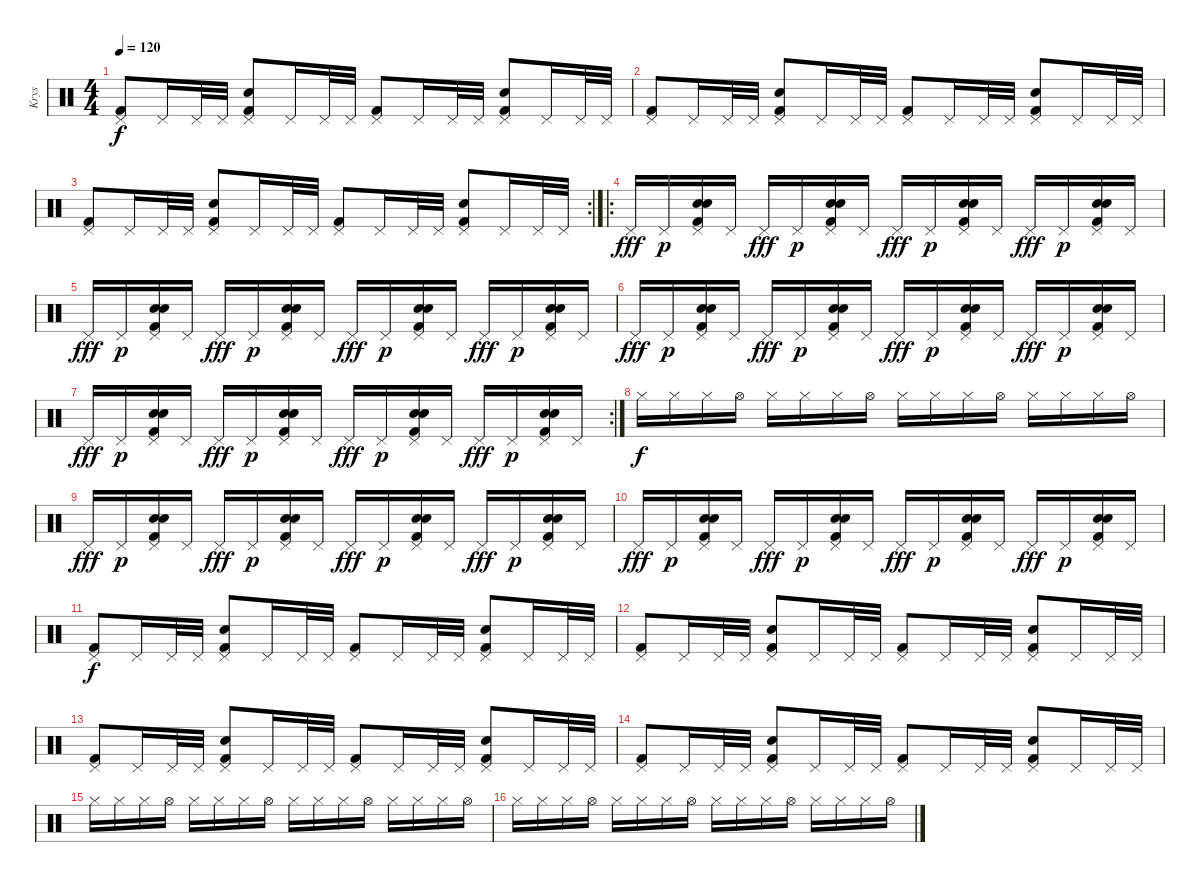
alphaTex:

\track ("Krys" "Krys") {instrument percussion}
\staff {score}
\articulation defaults
\ts (4 4)
\tempo 120
\clef neutral
\ks c
("Pedal Hi-Hat (hit)" "Kick (hit) 2").8{dy f} "Pedal Hi-Hat (hit)".16 "Pedal Hi-Hat (hit)".32 "Pedal Hi-Hat (hit)".32 ("Pedal Hi-Hat (hit)" "Snare (hit) 2" "Kick (hit) 2").8 "Pedal Hi-Hat (hit)".16 "Pedal Hi-Hat (hit)".32 "Pedal Hi-Hat (hit)".32 ("Pedal Hi-Hat (hit)" "Kick (hit) 2").8 "Pedal Hi-Hat (hit)".16 "Pedal Hi-Hat (hit)".32 "Pedal Hi-Hat (hit)".32 ("Pedal Hi-Hat (hit)" "Snare (hit) 2" "Kick (hit) 2").8 "Pedal Hi-Hat (hit)".16 "Pedal Hi-Hat (hit)".32 "Pedal Hi-Hat (hit)".32 |
("Pedal Hi-Hat (hit)" "Kick (hit) 2").8 "Pedal Hi-Hat (hit)".16 "Pedal Hi-Hat (hit)".32 "Pedal Hi-Hat (hit)".32 ("Pedal Hi-Hat (hit)" "Snare (hit) 2" "Kick (hit) 2").8 "Pedal Hi-Hat (hit)".16 "Pedal Hi-Hat (hit)".32 "Pedal Hi-Hat (hit)".32 ("Pedal Hi-Hat (hit)" "Kick (hit) 2").8 "Pedal Hi-Hat (hit)".16 "Pedal Hi-Hat (hit)".32 "Pedal Hi-Hat (hit)".32 ("Pedal Hi-Hat (hit)" "Snare (hit) 2" "Kick (hit) 2").8 "Pedal Hi-Hat (hit)".16 "Pedal Hi-Hat (hit)".32 "Pedal Hi-Hat (hit)".32 |
\rc 2
("Pedal Hi-Hat (hit)" "Kick (hit) 2").8 "Pedal Hi-Hat (hit)".16 "Pedal Hi-Hat (hit)".32 "Pedal Hi-Hat (hit)".32 ("Pedal Hi-Hat (hit)" "Snare (hit) 2" "Kick (hit) 2").8 "Pedal Hi-Hat (hit)".16 "Pedal Hi-Hat (hit)".32 "Pedal Hi-Hat (hit)".32 ("Pedal Hi-Hat (hit)" "Kick (hit) 2").8 "Pedal Hi-Hat (hit)".16 "Pedal Hi-Hat (hit)".32 "Pedal Hi-Hat (hit)".32 ("Pedal Hi-Hat (hit)" "Snare (hit) 2" "Kick (hit) 2").8 "Pedal Hi-Hat (hit)".16 "Pedal Hi-Hat (hit)".32 "Pedal Hi-Hat (hit)".32 |
\ro "Pedal Hi-Hat (hit)".16{dy fff} "Pedal Hi-Hat (hit)".16{dy p}
("Pedal Hi-Hat (hit)" "Kick (hit) 2" "Snare (hit) 2" "Snare (hit) 2").16 "Pedal Hi-Hat (hit)".16 "Pedal Hi-Hat (hit)".16{dy fff} "Pedal Hi-Hat (hit)".16{dy p} ("Pedal Hi-Hat (hit)" "Kick (hit) 2" "Snare (hit) 2" "Snare (hit) 2").16 "Pedal Hi-Hat (hit)".16 "Pedal Hi-Hat (hit)".16{dy fff} "Pedal Hi-Hat (hit)".16{dy p} ("Pedal Hi-Hat (hit)" "Kick (hit) 2" "Snare (hit) 2" "Snare (hit) 2").16 "Pedal Hi-Hat (hit)".16 "Pedal Hi-Hat (hit)".16{dy fff} "Pedal Hi-Hat (hit)".16{dy p} ("Pedal Hi-Hat (hit)" "Kick (hit) 2" "Snare (hit) 2" "Snare (hit) 2").16 "Pedal Hi-Hat (hit)".16 |
"Pedal Hi-Hat (hit)".16{dy fff} "Pedal Hi-Hat (hit)".16{dy p} ("Pedal Hi-Hat (hit)" "Kick (hit) 2" "Snare (hit) 2" "Snare (hit) 2").16 "Pedal Hi-Hat (hit)".16 "Pedal Hi-Hat (hit)".16{dy fff} "Pedal Hi-Hat (hit)".16{dy p} ("Pedal Hi-Hat (hit)" "Kick (hit) 2" "Snare (hit) 2" "Snare (hit) 2").16 "Pedal Hi-Hat (hit)".16 "Pedal Hi-Hat (hit)".16{dy fff} "Pedal Hi-Hat (hit)".16{dy p} ("Pedal Hi-Hat (hit)" "Kick (hit) 2" "Snare (hit) 2" "Snare (hit) 2").16 "Pedal Hi-Hat (hit)".16 "Pedal Hi-Hat (hit)".16{dy fff} "Pedal Hi-Hat (hit)".16{dy p} ("Pedal Hi-Hat (hit)" "Kick (hit) 2" "Snare (hit) 2" "Snare (hit) 2").16 "Pedal Hi-Hat (hit)".16 |
"Pedal Hi-Hat (hit)".16{dy fff} "Pedal Hi-Hat (hit)".16{dy p} ("Pedal Hi-Hat (hit)" "Kick (hit) 2" "Snare (hit) 2" "Snare (hit) 2").16 "Pedal Hi-Hat (hit)".16 "Pedal Hi-Hat (hit)".16{dy fff} "Pedal Hi-Hat (hit)".16{dy p} ("Pedal Hi-Hat (hit)" "Kick (hit) 2" "Snare (hit) 2" "Snare (hit) 2").16 "Pedal Hi-Hat (hit)".16 "Pedal Hi-Hat (hit)".16{dy fff} "Pedal Hi-Hat (hit)".16{dy p} ("Pedal Hi-Hat (hit)" "Kick (hit) 2" "Snare (hit) 2" "Snare (hit) 2").16 "Pedal Hi-Hat (hit)".16 "Pedal Hi-Hat (hit)".16{dy fff} "Pedal Hi-Hat (hit)".16{dy p} ("Pedal Hi-Hat (hit)" "Kick (hit) 2" "Snare (hit) 2" "Snare (hit) 2").16 "Pedal Hi-Hat (hit)".16 |
\rc 2 "Pedal Hi-Hat (hit)".16{dy fff} "Pedal Hi-Hat (hit)".16{dy p}
("Pedal Hi-Hat (hit)" "Kick (hit) 2" "Snare (hit) 2" "Snare (hit) 2").16 "Pedal Hi-Hat (hit)".16 "Pedal Hi-Hat (hit)".16{dy fff} "Pedal Hi-Hat (hit)".16{dy p} ("Pedal Hi-Hat (hit)" "Kick (hit) 2" "Snare (hit) 2" "Snare (hit) 2").16 "Pedal Hi-Hat (hit)".16 "Pedal Hi-Hat (hit)".16{dy fff} "Pedal Hi-Hat (hit)".16{dy p} ("Pedal Hi-Hat (hit)" "Kick (hit) 2" "Snare (hit) 2" "Snare (hit) 2").16 "Pedal Hi-Hat (hit)".16 "Pedal Hi-Hat (hit)".16{dy fff} "Pedal Hi-Hat (hit)".16{dy p} ("Pedal Hi-Hat (hit)" "Kick (hit) 2" "Snare (hit) 2" "Snare (hit) 2").16 "Pedal Hi-Hat (hit)".16 |
"Hi-Hat (closed)".16{dy f} "Hi-Hat (closed)".16 "Hi-Hat (closed)".16 "Hi-Hat (open)".16 "Hi-Hat (closed)".16 "Hi-Hat (closed)".16 "Hi-Hat (closed)".16 "Hi-Hat (open)".16 "Hi-Hat (closed)".16 "Hi-Hat (closed)".16 "Hi-Hat (closed)".16 "Hi-Hat (open)".16 "Hi-Hat (closed)".16 "Hi-Hat (closed)".16 "Hi-Hat (closed)".16 "Hi-Hat (open)".16 |
"Pedal Hi-Hat (hit)".16{dy fff} "Pedal Hi-Hat (hit)".16{dy p} ("Pedal Hi-Hat (hit)" "Kick (hit) 2" "Snare (hit) 2" "Snare (hit) 2").16 "Pedal Hi-Hat (hit)".16 "Pedal Hi-Hat (hit)".16{dy fff} "Pedal Hi-Hat (hit)".16{dy p} ("Pedal Hi-Hat (hit)" "Kick (hit) 2" "Snare (hit) 2" "Snare (hit) 2").16 "Pedal Hi-Hat (hit)".16 "Pedal Hi-Hat (hit)".16{dy fff} "Pedal Hi-Hat (hit)".16{dy p} ("Pedal Hi-Hat (hit)" "Kick (hit) 2" "Snare (hit) 2" "Snare (hit) 2").16 "Pedal Hi-Hat (hit)".16 "Pedal Hi-Hat (hit)".16{dy fff} "Pedal Hi-Hat (hit)".16{dy p} ("Pedal Hi-Hat (hit)" "Kick (hit) 2" "Snare (hit) 2" "Snare (hit) 2").16 "Pedal Hi-Hat (hit)".16 |
"Pedal Hi-Hat (hit)".16{dy fff} "Pedal Hi-Hat (hit)".16{dy p} ("Pedal Hi-Hat (hit)" "Kick (hit) 2" "Snare (hit) 2" "Snare (hit) 2").16 "Pedal Hi-Hat (hit)".16 "Pedal Hi-Hat (hit)".16{dy fff} "Pedal Hi-Hat (hit)".16{dy p} ("Pedal Hi-Hat (hit)" "Kick (hit) 2" "Snare (hit) 2" "Snare (hit) 2").16 "Pedal Hi-Hat (hit)".16 "Pedal Hi-Hat (hit)".16{dy fff} "Pedal Hi-Hat (hit)".16{dy p} ("Pedal Hi-Hat (hit)" "Kick (hit) 2" "Snare (hit) 2" "Snare (hit) 2").16 "Pedal Hi-Hat (hit)".16 "Pedal Hi-Hat (hit)".16{dy fff} "Pedal Hi-Hat (hit)".16{dy p} ("Pedal Hi-Hat (hit)" "Kick (hit) 2" "Snare (hit) 2" "Snare (hit) 2").16 "Pedal Hi-Hat (hit)".16 |
("Pedal Hi-Hat (hit)" "Kick (hit) 2").8{dy f} "Pedal Hi-Hat (hit)".16 "Pedal Hi-Hat (hit)".32 "Pedal Hi-Hat (hit)".32 ("Pedal Hi-Hat (hit)" "Snare (hit) 2" "Kick (hit) 2").8 "Pedal Hi-Hat (hit)".16 "Pedal Hi-Hat (hit)".32 "Pedal Hi-Hat (hit)".32 ("Pedal Hi-Hat (hit)" "Kick (hit) 2").8 "Pedal Hi-Hat (hit)".16 "Pedal Hi-Hat (hit)".32 "Pedal Hi-Hat (hit)".32 ("Pedal Hi-Hat (hit)" "Snare (hit) 2" "Kick (hit) 2").8 "Pedal Hi-Hat (hit)".16 "Pedal Hi-Hat (hit)".32 "Pedal Hi-Hat (hit)".32 |
("Pedal Hi-Hat (hit)" "Kick (hit) 2").8 "Pedal Hi-Hat (hit)".16 "Pedal Hi-Hat (hit)".32 "Pedal Hi-Hat (hit)".32 ("Pedal Hi-Hat (hit)" "Snare (hit) 2" "Kick (hit) 2").8 "Pedal Hi-Hat (hit)".16 "Pedal Hi-Hat (hit)".32 "Pedal Hi-Hat (hit)".32 ("Pedal Hi-Hat (hit)" "Kick (hit) 2").8 "Pedal Hi-Hat (hit)".16 "Pedal Hi-Hat (hit)".32 "Pedal Hi-Hat (hit)".32 ("Pedal Hi-Hat (hit)" "Snare (hit) 2" "Kick (hit) 2").8 "Pedal Hi-Hat (hit)".16 "Pedal Hi-Hat (hit)".32 "Pedal Hi-Hat (hit)".32 |
("Pedal Hi-Hat (hit)" "Kick (hit) 2").8 "Pedal Hi-Hat (hit)".16 "Pedal Hi-Hat (hit)".32 "Pedal Hi-Hat (hit)".32 ("Pedal Hi-Hat (hit)" "Snare (hit) 2" "Kick (hit) 2").8 "Pedal Hi-Hat (hit)".16 "Pedal Hi-Hat (hit)".32 "Pedal Hi-Hat (hit)".32 ("Pedal Hi-Hat (hit)" "Kick (hit) 2").8 "Pedal Hi-Hat (hit)".16 "Pedal Hi-Hat (hit)".32 "Pedal Hi-Hat (hit)".32 ("Pedal Hi-Hat (hit)" "Snare (hit) 2" "Kick (hit) 2").8 "Pedal Hi-Hat (hit)".16 "Pedal Hi-Hat (hit)".32 "Pedal Hi-Hat (hit)".32 |
("Pedal Hi-Hat (hit)" "Kick (hit) 2").8 "Pedal Hi-Hat (hit)".16 "Pedal Hi-Hat (hit)".32 "Pedal Hi-Hat (hit)".32 ("Pedal Hi-Hat (hit)" "Snare (hit) 2" "Kick (hit) 2").8 "Pedal Hi-Hat (hit)".16 "Pedal Hi-Hat (hit)".32 "Pedal Hi-Hat (hit)".32 ("Pedal Hi-Hat (hit)" "Kick (hit) 2").8 "Pedal Hi-Hat (hit)".16 "Pedal Hi-Hat (hit)".32 "Pedal Hi-Hat (hit)".32 ("Pedal Hi-Hat (hit)" "Snare (hit) 2" "Kick (hit) 2").8 "Pedal Hi-Hat (hit)".16 "Pedal Hi-Hat (hit)".32 "Pedal Hi-Hat (hit)".32 |
"Hi-Hat (closed)".16 "Hi-Hat (closed)".16 "Hi-Hat (closed)".16 "Hi-Hat (open)".16 "Hi-Hat (closed)".16 "Hi-Hat (closed)".16 "Hi-Hat (closed)".16 "Hi-Hat (open)".16 "Hi-Hat (closed)".16 "Hi-Hat (closed)".16 "Hi-Hat (closed)".16 "Hi-Hat (open)".16 "Hi-Hat (closed)".16 "Hi-Hat (closed)".16 "Hi-Hat (closed)".16 "Hi-Hat (open)".16 |
"Hi-Hat (closed)".16 "Hi-Hat (closed)".16 "Hi-Hat (closed)".16 "Hi-Hat (open)".16 "Hi-Hat (closed)".16 "Hi-Hat (closed)".16 "Hi-Hat (closed)".16 "Hi-Hat (open)".16 "Hi-Hat (closed)".16 "Hi-Hat (closed)".16 "Hi-Hat (closed)".16 "Hi-Hat (open)".16 "Hi-Hat (closed)".16 "Hi-Hat (closed)".16 "Hi-Hat (closed)".16 "Hi-Hat (open)".16
